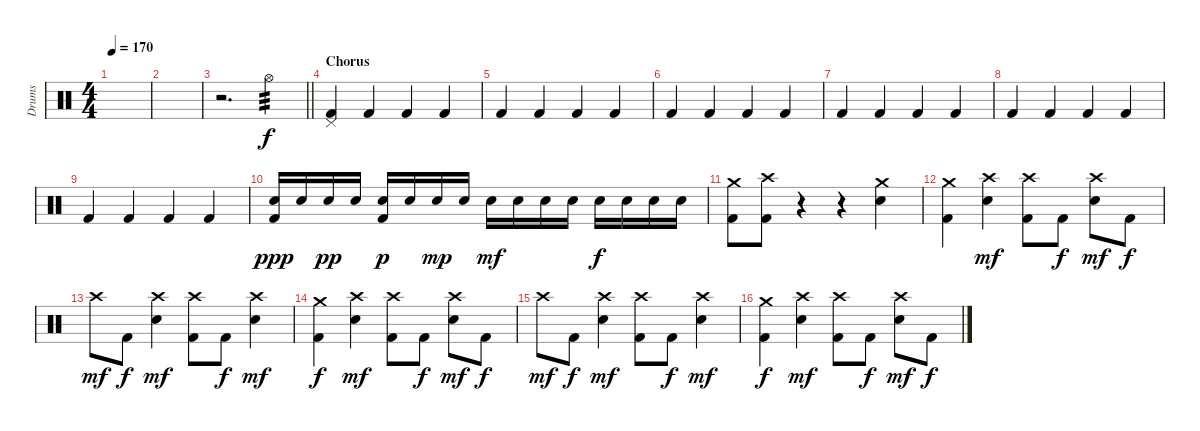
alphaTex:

\track ("Drums" "Drums") {instrument percussion}
\staff {score}
\articulation defaults
\ts (4 4)
\tempo 170
\clef neutral
\ks c
|
|
\barLineRight lightlight
r.2{d} "Hi-Hat (open)".4{tp 3} |
\section ("" "Chorus")
("Kick (hit) 2" "Pedal Hi-Hat (hit)").4{dy f} "Kick (hit) 2".4 "Kick (hit) 2".4 "Kick (hit) 2".4 |
"Kick (hit) 2".4 "Kick (hit) 2".4 "Kick (hit) 2".4 "Kick (hit) 2".4 |
"Kick (hit) 2".4 "Kick (hit) 2".4 "Kick (hit) 2".4 "Kick (hit) 2".4 |
"Kick (hit) 2".4 "Kick (hit) 2".4 "Kick (hit) 2".4 "Kick (hit) 2".4 |
"Kick (hit) 2".4 "Kick (hit) 2".4 "Kick (hit) 2".4 "Kick (hit) 2".4 |
"Kick (hit) 2".4 "Kick (hit) 2".4 "Kick (hit) 2".4 "Kick (hit) 2".4 |
("Electric Snare (hit)" "Kick (hit) 2").16{dy ppp} "Electric Snare (hit)".16 "Electric Snare (hit)".16{dy pp} "Electric Snare (hit)".16 ("Electric Snare (hit)" "Kick (hit) 2").16{dy p} "Electric Snare (hit)".16 "Electric Snare (hit)".16{dy mp} "Electric Snare (hit)".16 "Electric Snare (hit)".16{dy mf} "Electric Snare (hit)".16 "Electric Snare (hit)".16 "Electric Snare (hit)".16 "Electric Snare (hit)".16{dy f} "Electric Snare (hit)".16 "Electric Snare (hit)".16 "Electric Snare (hit)".16 |
("Crash medium (hit)" "Kick (hit) 2").8 ("Crash high (hit)" "Kick (hit) 2").8 r.4 r.4 ("Crash medium (hit)" "Electric Snare (hit)").4 |
("Crash medium (hit)" "Kick (hit) 2").4 ("Crash high (hit)" "Electric Snare (hit)").4{dy mf} ("Crash high (hit)" "Kick (hit) 2").8 "Kick (hit) 2".8{dy f} ("Crash high (hit)" "Electric Snare (hit)").8{dy mf} "Kick (hit) 2".8{dy f} |
"Crash high (hit)".8{dy mf} "Kick (hit) 2".8{dy f} ("Crash high (hit)" "Electric Snare (hit)").4{dy mf} ("Crash high (hit)" "Kick (hit) 2").8 "Kick (hit) 2".8{dy f} ("Crash high (hit)" "Electric Snare (hit)").4{dy mf} |
("Crash medium (hit)" "Kick (hit) 2").4{dy f} ("Crash high (hit)" "Electric Snare (hit)").4{dy mf} ("Crash high (hit)" "Kick (hit) 2").8 "Kick (hit) 2".8{dy f} ("Crash high (hit)" "Electric Snare (hit)").8{dy mf} "Kick (hit) 2".8{dy f} |
"Crash high (hit)".8{dy mf} "Kick (hit) 2".8{dy f} ("Crash high (hit)" "Electric Snare (hit)").4{dy mf} ("Crash high (hit)" "Kick (hit) 2").8 "Kick (hit) 2".8{dy f} ("Crash high (hit)" "Electric Snare (hit)").4{dy mf} |
("Crash medium (hit)" "Kick (hit) 2").4{dy f} ("Crash high (hit)" "Electric Snare (hit)").4{dy mf} ("Crash high (hit)" "Kick (hit) 2").8 "Kick (hit) 2".8{dy f} ("Crash high (hit)" "Electric Snare (hit)").8{dy mf} "Kick (hit) 2".8{dy f}
